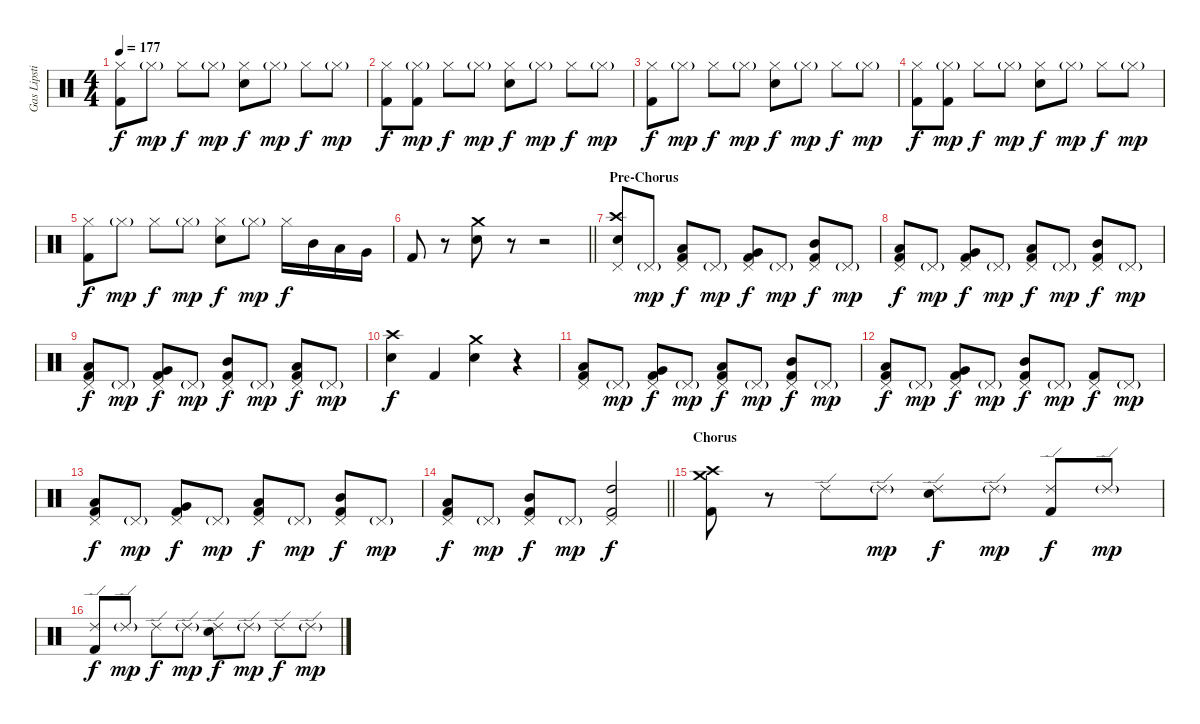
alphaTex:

\track ("Gas Lipstick (Drums)" "Gas Lipsti") {instrument percussion}
\staff {score}
\articulation defaults
\ts (4 4)
\tempo 177
\clef neutral
\ks c
("Hi-Hat (closed)" "Kick (hit) 2").8{dy f} "Hi-Hat (closed)"{g}.8{dy mp} "Hi-Hat (closed)".8{dy f} "Hi-Hat (closed)"{g}.8{dy mp} ("Hi-Hat (closed)" "Snare (hit) 2").8{dy f} "Hi-Hat (closed)"{g}.8{dy mp} "Hi-Hat (closed)".8{dy f} "Hi-Hat (closed)"{g}.8{dy mp} |
("Hi-Hat (closed)" "Kick (hit) 2").8{dy f} ("Hi-Hat (closed)"{g} "Kick (hit) 2").8{dy mp} "Hi-Hat (closed)".8{dy f} "Hi-Hat (closed)"{g}.8{dy mp} ("Hi-Hat (closed)" "Snare (hit) 2").8{dy f} "Hi-Hat (closed)"{g}.8{dy mp} "Hi-Hat (closed)".8{dy f} "Hi-Hat (closed)"{g}.8{dy mp} |
("Hi-Hat (closed)" "Kick (hit) 2").8{dy f} "Hi-Hat (closed)"{g}.8{dy mp} "Hi-Hat (closed)".8{dy f} "Hi-Hat (closed)"{g}.8{dy mp} ("Hi-Hat (closed)" "Snare (hit) 2").8{dy f} "Hi-Hat (closed)"{g}.8{dy mp} "Hi-Hat (closed)".8{dy f} "Hi-Hat (closed)"{g}.8{dy mp} |
("Hi-Hat (closed)" "Kick (hit) 2").8{dy f} ("Hi-Hat (closed)"{g} "Kick (hit) 2").8{dy mp} "Hi-Hat (closed)".8{dy f} "Hi-Hat (closed)"{g}.8{dy mp} ("Hi-Hat (closed)" "Snare (hit) 2").8{dy f} "Hi-Hat (closed)"{g}.8{dy mp} "Hi-Hat (closed)".8{dy f} "Hi-Hat (closed)"{g}.8{dy mp} |
("Hi-Hat (closed)" "Kick (hit) 2").8{dy f} "Hi-Hat (closed)"{g}.8{dy mp} "Hi-Hat (closed)".8{dy f} "Hi-Hat (closed)"{g}.8{dy mp} ("Hi-Hat (closed)" "Snare (hit) 2").8{dy f} "Hi-Hat (closed)"{g}.8{dy mp} "Hi-Hat (closed)".16{dy f} "Mid Tom (hit)".16 "Low Tom (hit)".16 "Very Low Tom (hit)".16 |
\barLineRight lightlight "Kick (hit) 2".8
r.8 ("Crash medium (hit)" "Snare (hit) 2").8 r.8 r.2 |
\section ("" "Pre-Chorus")
("Crash high (hit)" "Pedal Hi-Hat (hit)" "Snare (hit) 2").8 "Pedal Hi-Hat (hit)"{g}.8{dy mp} ("Pedal Hi-Hat (hit)" "Low Tom (hit)" "Kick (hit) 2").8{dy f} "Pedal Hi-Hat (hit)"{g}.8{dy mp} ("Pedal Hi-Hat (hit)" "Very Low Tom (hit)" "Kick (hit) 2").8{dy f} "Pedal Hi-Hat (hit)"{g}.8{dy mp} ("Pedal Hi-Hat (hit)" "Mid Tom (hit)" "Kick (hit) 2").8{dy f} "Pedal Hi-Hat (hit)"{g}.8{dy mp} |
("Pedal Hi-Hat (hit)" "Low Tom (hit)" "Kick (hit) 2").8{dy f} "Pedal Hi-Hat (hit)"{g}.8{dy mp} ("Pedal Hi-Hat (hit)" "Very Low Tom (hit)" "Kick (hit) 2").8{dy f} "Pedal Hi-Hat (hit)"{g}.8{dy mp} ("Pedal Hi-Hat (hit)" "Low Tom (hit)" "Kick (hit) 2").8{dy f} "Pedal Hi-Hat (hit)"{g}.8{dy mp} ("Pedal Hi-Hat (hit)" "Mid Tom (hit)" "Kick (hit) 2").8{dy f} "Pedal Hi-Hat (hit)"{g}.8{dy mp} |
("Pedal Hi-Hat (hit)" "Low Tom (hit)" "Kick (hit) 2").8{dy f} "Pedal Hi-Hat (hit)"{g}.8{dy mp} ("Pedal Hi-Hat (hit)" "Very Low Tom (hit)" "Kick (hit) 2").8{dy f} "Pedal Hi-Hat (hit)"{g}.8{dy mp} ("Pedal Hi-Hat (hit)" "Mid Tom (hit)" "Kick (hit) 2").8{dy f} "Pedal Hi-Hat (hit)"{g}.8{dy mp} ("Pedal Hi-Hat (hit)" "Low Tom (hit)" "Kick (hit) 2").8{dy f} "Pedal Hi-Hat (hit)"{g}.8{dy mp} |
("Crash high (hit)" "Snare (hit) 2").4{dy f} "Kick (hit) 2".4 ("Crash medium (hit)" "Snare (hit) 2").4 r.4 |
("Pedal Hi-Hat (hit)" "Low Tom (hit)" "Kick (hit) 2").8 "Pedal Hi-Hat (hit)"{g}.8{dy mp} ("Pedal Hi-Hat (hit)" "Very Low Tom (hit)" "Kick (hit) 2").8{dy f} "Pedal Hi-Hat (hit)"{g}.8{dy mp} ("Pedal Hi-Hat (hit)" "Low Tom (hit)" "Kick (hit) 2").8{dy f} "Pedal Hi-Hat (hit)"{g}.8{dy mp} ("Pedal Hi-Hat (hit)" "Mid Tom (hit)" "Kick (hit) 2").8{dy f} "Pedal Hi-Hat (hit)"{g}.8{dy mp} |
("Pedal Hi-Hat (hit)" "Low Tom (hit)" "Kick (hit) 2").8{dy f} "Pedal Hi-Hat (hit)"{g}.8{dy mp} ("Pedal Hi-Hat (hit)" "Very Low Tom (hit)" "Kick (hit) 2").8{dy f} "Pedal Hi-Hat (hit)"{g}.8{dy mp} ("Pedal Hi-Hat (hit)" "Mid Tom (hit)" "Kick (hit) 2").8{dy f} "Pedal Hi-Hat (hit)"{g}.8{dy mp} ("Pedal Hi-Hat (hit)" "Kick (hit) 2").8{dy f} "Pedal Hi-Hat (hit)"{g}.8{dy mp} |
("Pedal Hi-Hat (hit)" "Low Tom (hit)" "Kick (hit) 2").8{dy f} "Pedal Hi-Hat (hit)"{g}.8{dy mp} ("Pedal Hi-Hat (hit)" "Very Low Tom (hit)" "Kick (hit) 2").8{dy f} "Pedal Hi-Hat (hit)"{g}.8{dy mp} ("Pedal Hi-Hat (hit)" "Low Tom (hit)" "Kick (hit) 2").8{dy f} "Pedal Hi-Hat (hit)"{g}.8{dy mp} ("Pedal Hi-Hat (hit)" "Mid Tom (hit)" "Kick (hit) 2").8{dy f} "Pedal Hi-Hat (hit)"{g}.8{dy mp} |
\barLineRight lightlight
("Pedal Hi-Hat (hit)" "Low Tom (hit)" "Kick (hit) 2").8{dy f} "Pedal Hi-Hat (hit)"{g}.8{dy mp} ("Pedal Hi-Hat (hit)" "Mid Tom (hit)" "Kick (hit) 2").8{dy f} "Pedal Hi-Hat (hit)"{g}.8{dy mp} ("Pedal Hi-Hat (hit)" "High Tom (hit)" "Kick (hit) 2").2{dy f} |
\section ("" "Chorus")
("Crash medium (hit)" "Crash high (hit)" "Kick (hit) 2").8 r.8 "Ride (edge) 2".8 "Ride (edge) 2"{g}.8{dy mp} ("Ride (edge) 2" "Snare (hit) 2").8{dy f} "Ride (edge) 2"{g}.8{dy mp} ("Ride (edge) 2" "Kick (hit) 2").8{dy f} "Ride (edge) 2"{g}.8{dy mp} |
("Ride (edge) 2" "Kick (hit) 2").8{dy f} "Ride (edge) 2"{g}.8{dy mp} "Ride (edge) 2".8{dy f} "Ride (edge) 2"{g}.8{dy mp} ("Ride (edge) 2" "Snare (hit) 2").8{dy f} "Ride (edge) 2"{g}.8{dy mp} "Ride (edge) 2".8{dy f} "Ride (edge) 2"{g}.8{dy mp}
